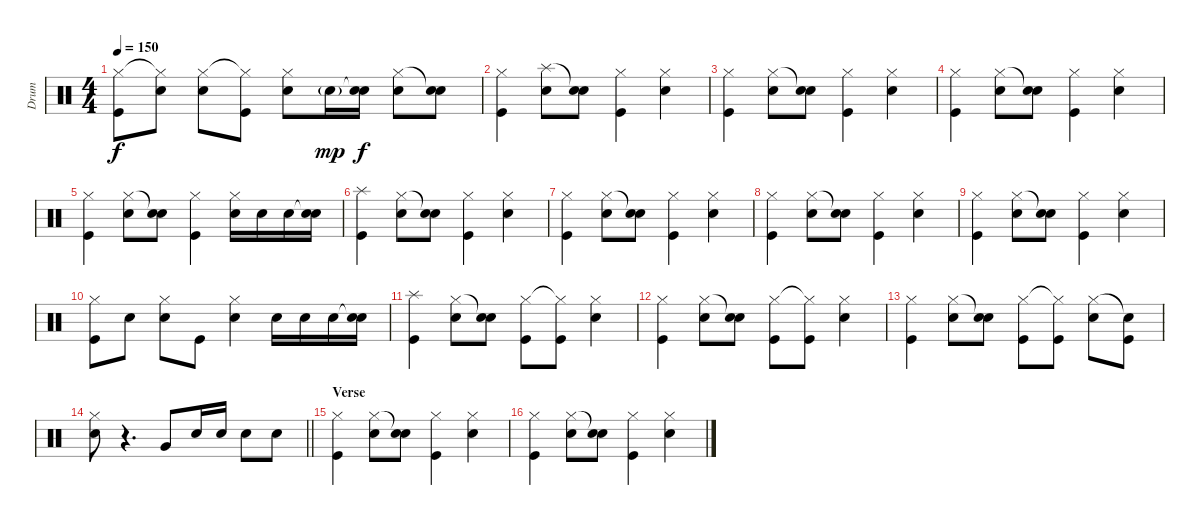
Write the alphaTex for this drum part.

\track ("Drum" "Drum") {instrument percussion}
\staff {score}
\articulation defaults
\ts (4 4)
\tempo 150
\clef neutral
\ks c
("Hi-Hat (closed)" "Kick (hit)").8{dy f} ("Hi-Hat (closed)"{t} "Snare (hit) 2").8 ("Hi-Hat (closed)" "Snare (hit) 2").8 ("Hi-Hat (closed)"{t} "Kick (hit)").8 ("Hi-Hat (closed)" "Snare (hit) 2").8 "Snare (hit) 2"{g}.16{dy mp} ("Snare (hit)"{t} "Snare (hit) 2").16{dy f} ("Hi-Hat (closed)" "Snare (hit) 2").8 ("Snare (hit)"{t} "Snare (hit) 2").8 |
("Hi-Hat (closed)" "Kick (hit)").4 ("Splash (hit)" "Snare (hit) 2").8 ("Snare (hit)"{t} "Snare (hit) 2").8 ("Hi-Hat (closed)" "Kick (hit)").4 ("Hi-Hat (closed)" "Snare (hit) 2").4 |
("Hi-Hat (closed)" "Kick (hit)").4 ("Hi-Hat (closed)" "Snare (hit) 2").8 ("Snare (hit)"{t} "Snare (hit) 2").8 ("Hi-Hat (closed)" "Kick (hit)").4 ("Hi-Hat (closed)" "Snare (hit) 2").4 |
("Hi-Hat (closed)" "Kick (hit)").4 ("Hi-Hat (closed)" "Snare (hit) 2").8 ("Snare (hit)"{t} "Snare (hit) 2").8 ("Hi-Hat (closed)" "Kick (hit)").4 ("Hi-Hat (closed)" "Snare (hit) 2").4 |
("Hi-Hat (closed)" "Kick (hit)").4 ("Hi-Hat (closed)" "Snare (hit) 2").8 ("Snare (hit)"{t} "Snare (hit) 2").8 ("Hi-Hat (closed)" "Kick (hit)").4 ("Hi-Hat (closed)" "Snare (hit) 2").16 "Snare (hit) 2".16 "Snare (hit) 2".16 ("Snare (hit)"{t} "Snare (hit) 2").16 |
("Splash (hit)" "Kick (hit)").4 ("Hi-Hat (closed)" "Snare (hit) 2").8 ("Snare (hit)"{t} "Snare (hit) 2").8 ("Hi-Hat (closed)" "Kick (hit)").4 ("Hi-Hat (closed)" "Snare (hit) 2").4 |
("Hi-Hat (closed)" "Kick (hit)").4 ("Hi-Hat (closed)" "Snare (hit) 2").8 ("Snare (hit)"{t} "Snare (hit) 2").8 ("Hi-Hat (closed)" "Kick (hit)").4 ("Hi-Hat (closed)" "Snare (hit) 2").4 |
("Hi-Hat (closed)" "Kick (hit)").4 ("Hi-Hat (closed)" "Snare (hit) 2").8 ("Snare (hit)"{t} "Snare (hit) 2").8 ("Hi-Hat (closed)" "Kick (hit)").4 ("Hi-Hat (closed)" "Snare (hit) 2").4 |
("Hi-Hat (closed)" "Kick (hit)").4 ("Hi-Hat (closed)" "Snare (hit) 2").8 ("Snare (hit)"{t} "Snare (hit) 2").8 ("Hi-Hat (closed)" "Kick (hit)").4 ("Hi-Hat (closed)" "Snare (hit) 2").4 |
("Hi-Hat (closed)" "Kick (hit)").8 "Snare (hit) 2".8 ("Hi-Hat (closed)" "Snare (hit) 2").8 "Kick (hit)".8 ("Hi-Hat (closed)" "Snare (hit) 2").4 "Snare (hit) 2".16 "Snare (hit) 2".16 "Snare (hit) 2".16 ("Snare (hit)"{t} "Snare (hit) 2").16 |
("Splash (hit)" "Kick (hit)").4 ("Hi-Hat (closed)" "Snare (hit) 2").8 ("Snare (hit)"{t} "Snare (hit) 2").8 ("Hi-Hat (closed)" "Kick (hit)").8 ("Hi-Hat (closed)"{t} "Kick (hit)").8 ("Hi-Hat (closed)" "Snare (hit) 2").4 |
("Hi-Hat (closed)" "Kick (hit)").4 ("Hi-Hat (closed)" "Snare (hit) 2").8 ("Snare (hit)"{t} "Snare (hit) 2").8 ("Hi-Hat (closed)" "Kick (hit)").8 ("Hi-Hat (closed)"{t} "Kick (hit)").8 ("Hi-Hat (closed)" "Snare (hit) 2").4 |
("Hi-Hat (closed)" "Kick (hit)").4 ("Hi-Hat (closed)" "Snare (hit) 2").8 ("Snare (hit)"{t} "Snare (hit) 2").8 ("Hi-Hat (closed)" "Kick (hit)").8 ("Hi-Hat (closed)"{t} "Kick (hit)").8 ("Hi-Hat (closed)" "Snare (hit) 2").8 ("Snare (hit)"{t} "Kick (hit)").8 |
\barLineRight lightlight
("Hi-Hat (closed)" "Snare (hit) 2").8 r.4{d} "Very Low Tom (hit)".8 "Snare (hit) 2".16 "Snare (hit) 2".16 "Snare (hit) 2".8 "Snare (hit) 2".8 |
\section ("" "Verse")
("Hi-Hat (closed)" "Kick (hit)").4 ("Hi-Hat (closed)" "Snare (hit) 2").8 ("Snare (hit)"{t} "Snare (hit) 2").8 ("Hi-Hat (closed)" "Kick (hit)").4 ("Hi-Hat (closed)" "Snare (hit) 2").4 |
("Hi-Hat (closed)" "Kick (hit)").4 ("Hi-Hat (closed)" "Snare (hit) 2").8 ("Snare (hit)"{t} "Snare (hit) 2").8 ("Hi-Hat (closed)" "Kick (hit)").4 ("Hi-Hat (closed)" "Snare (hit) 2").4
